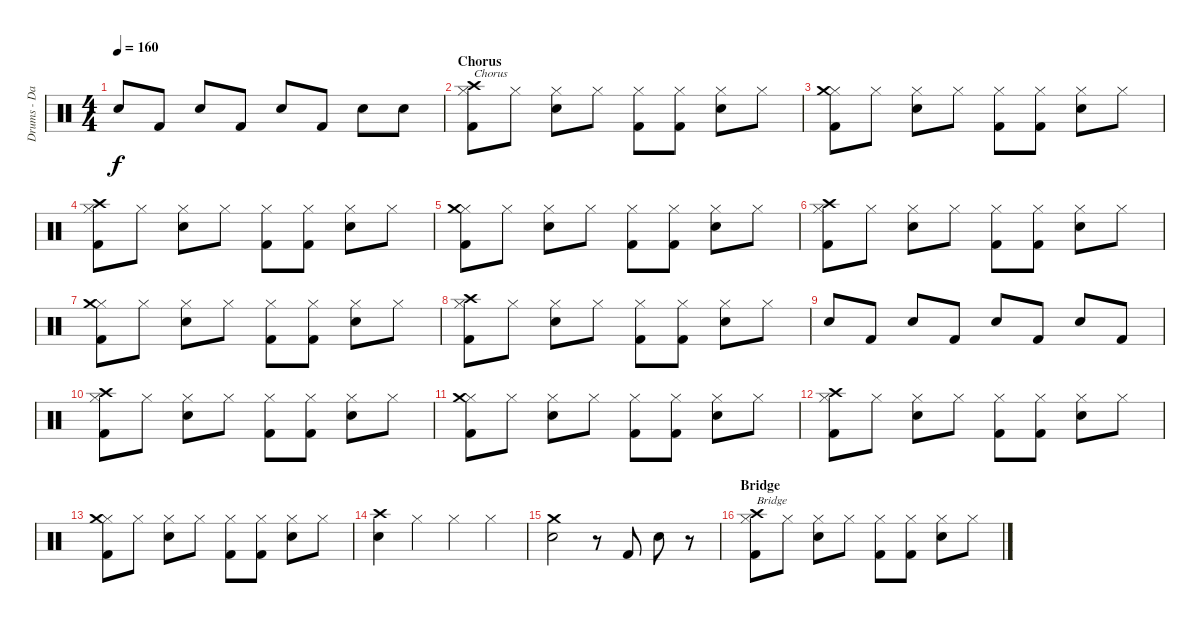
\track ("Drums - Daniel Zimmermann" "Drums - Da") {instrument percussion}
\staff {score}
\articulation defaults
\ts (4 4)
\tempo 160
\clef neutral
\ks c "Snare (hit) 2".8{dy f} "Kick (hit) 2".8 "Snare (hit) 2".8 "Kick (hit) 2".8 "Snare (hit) 2".8 "Kick (hit) 2".8 "Snare (hit) 2".8 "Snare (hit) 2".8
|
\section ("" "Chorus")
("Hi-Hat (closed)" "Kick (hit) 2" "Crash high (hit)").8{txt "Chorus"} "Hi-Hat (closed)".8 ("Hi-Hat (closed)" "Snare (hit) 2").8 "Hi-Hat (closed)".8 ("Hi-Hat (closed)" "Kick (hit) 2").8 ("Hi-Hat (closed)" "Kick (hit) 2").8 ("Hi-Hat (closed)" "Snare (hit) 2").8 "Hi-Hat (closed)".8 |
("Hi-Hat (closed)" "Kick (hit) 2" "Crash medium (hit)").8 "Hi-Hat (closed)".8 ("Hi-Hat (closed)" "Snare (hit) 2").8 "Hi-Hat (closed)".8 ("Hi-Hat (closed)" "Kick (hit) 2").8 ("Hi-Hat (closed)" "Kick (hit) 2").8 ("Hi-Hat (closed)" "Snare (hit) 2").8 "Hi-Hat (closed)".8 |
("Hi-Hat (closed)" "Kick (hit) 2" "Crash high (hit)").8 "Hi-Hat (closed)".8 ("Hi-Hat (closed)" "Snare (hit) 2").8 "Hi-Hat (closed)".8 ("Hi-Hat (closed)" "Kick (hit) 2").8 ("Hi-Hat (closed)" "Kick (hit) 2").8 ("Hi-Hat (closed)" "Snare (hit) 2").8 "Hi-Hat (closed)".8 |
("Hi-Hat (closed)" "Kick (hit) 2" "Crash medium (hit)").8 "Hi-Hat (closed)".8 ("Hi-Hat (closed)" "Snare (hit) 2").8 "Hi-Hat (closed)".8 ("Hi-Hat (closed)" "Kick (hit) 2").8 ("Hi-Hat (closed)" "Kick (hit) 2").8 ("Hi-Hat (closed)" "Snare (hit) 2").8 "Hi-Hat (closed)".8 |
("Hi-Hat (closed)" "Kick (hit) 2" "Crash high (hit)").8 "Hi-Hat (closed)".8 ("Hi-Hat (closed)" "Snare (hit) 2").8 "Hi-Hat (closed)".8 ("Hi-Hat (closed)" "Kick (hit) 2").8 ("Hi-Hat (closed)" "Kick (hit) 2").8 ("Hi-Hat (closed)" "Snare (hit) 2").8 "Hi-Hat (closed)".8 |
("Hi-Hat (closed)" "Kick (hit) 2" "Crash medium (hit)").8 "Hi-Hat (closed)".8 ("Hi-Hat (closed)" "Snare (hit) 2").8 "Hi-Hat (closed)".8 ("Hi-Hat (closed)" "Kick (hit) 2").8 ("Hi-Hat (closed)" "Kick (hit) 2").8 ("Hi-Hat (closed)" "Snare (hit) 2").8 "Hi-Hat (closed)".8 |
("Hi-Hat (closed)" "Kick (hit) 2" "Crash high (hit)").8 "Hi-Hat (closed)".8 ("Hi-Hat (closed)" "Snare (hit) 2").8 "Hi-Hat (closed)".8 ("Hi-Hat (closed)" "Kick (hit) 2").8 ("Hi-Hat (closed)" "Kick (hit) 2").8 ("Hi-Hat (closed)" "Snare (hit) 2").8 "Hi-Hat (closed)".8 |
"Snare (hit) 2".8 "Kick (hit) 2".8 "Snare (hit) 2".8 "Kick (hit) 2".8 "Snare (hit) 2".8 "Kick (hit) 2".8 "Snare (hit) 2".8 "Kick (hit) 2".8 |
("Hi-Hat (closed)" "Kick (hit) 2" "Crash high (hit)").8 "Hi-Hat (closed)".8 ("Hi-Hat (closed)" "Snare (hit) 2").8 "Hi-Hat (closed)".8 ("Hi-Hat (closed)" "Kick (hit) 2").8 ("Hi-Hat (closed)" "Kick (hit) 2").8 ("Hi-Hat (closed)" "Snare (hit) 2").8 "Hi-Hat (closed)".8 |
("Hi-Hat (closed)" "Kick (hit) 2" "Crash medium (hit)").8 "Hi-Hat (closed)".8 ("Hi-Hat (closed)" "Snare (hit) 2").8 "Hi-Hat (closed)".8 ("Hi-Hat (closed)" "Kick (hit) 2").8 ("Hi-Hat (closed)" "Kick (hit) 2").8 ("Hi-Hat (closed)" "Snare (hit) 2").8 "Hi-Hat (closed)".8 |
("Hi-Hat (closed)" "Kick (hit) 2" "Crash high (hit)").8 "Hi-Hat (closed)".8 ("Hi-Hat (closed)" "Snare (hit) 2").8 "Hi-Hat (closed)".8 ("Hi-Hat (closed)" "Kick (hit) 2").8 ("Hi-Hat (closed)" "Kick (hit) 2").8 ("Hi-Hat (closed)" "Snare (hit) 2").8 "Hi-Hat (closed)".8 |
("Hi-Hat (closed)" "Kick (hit) 2" "Crash medium (hit)").8 "Hi-Hat (closed)".8 ("Hi-Hat (closed)" "Snare (hit) 2").8 "Hi-Hat (closed)".8 ("Hi-Hat (closed)" "Kick (hit) 2").8 ("Hi-Hat (closed)" "Kick (hit) 2").8 ("Hi-Hat (closed)" "Snare (hit) 2").8 "Hi-Hat (closed)".8 |
("Snare (hit) 2" "Crash high (hit)").4 "Hi-Hat (closed)".4 "Hi-Hat (closed)".4 "Hi-Hat (closed)".4 |
("Snare (hit) 2" "Crash medium (hit)").2 r.8 "Kick (hit) 2".8 "Snare (hit) 2".8 r.8 |
\section ("" "Bridge")
("Hi-Hat (closed)" "Kick (hit) 2" "Crash high (hit)").8{txt "Bridge"} "Hi-Hat (closed)".8 ("Hi-Hat (closed)" "Snare (hit) 2").8 "Hi-Hat (closed)".8 ("Hi-Hat (closed)" "Kick (hit) 2").8 ("Hi-Hat (closed)" "Kick (hit) 2").8 ("Hi-Hat (closed)" "Snare (hit) 2").8 "Hi-Hat (closed)".8
